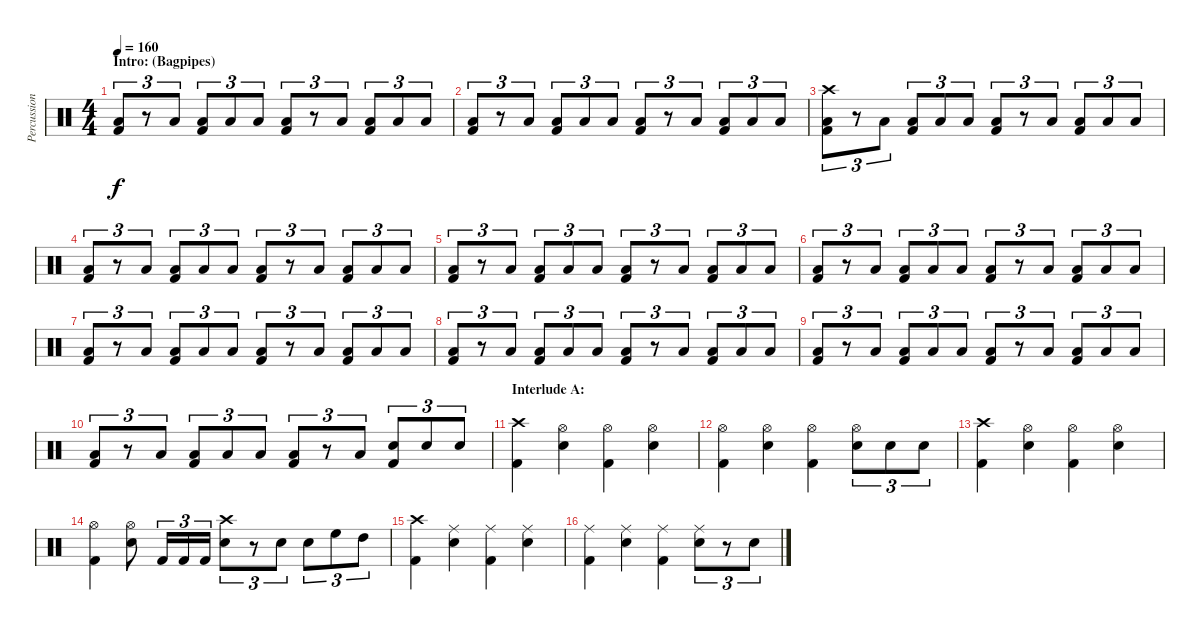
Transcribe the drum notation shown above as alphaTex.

\track ("Percussion" "Percussion") {instrument percussion}
\staff {score}
\articulation defaults
\ts (4 4)
\section ("" "Intro: (Bagpipes)")
\tempo 160
\tempo 145
\tempo 160
\clef neutral
\ks c
("Low Tom (hit)" "Kick (hit) 2").8{tu (3 2) dy f} r.8{tu (3 2)} "Low Tom (hit)".8{tu (3 2)} ("Low Tom (hit)" "Kick (hit) 2").8{tu (3 2)} "Low Tom (hit)".8{tu (3 2)} "Low Tom (hit)".8{tu (3 2)} ("Low Tom (hit)" "Kick (hit) 2").8{tu (3 2)} r.8{tu (3 2)} "Low Tom (hit)".8{tu (3 2)} ("Low Tom (hit)" "Kick (hit) 2").8{tu (3 2)} "Low Tom (hit)".8{tu (3 2)} "Low Tom (hit)".8{tu (3 2)} |
("Low Tom (hit)" "Kick (hit) 2").8{tu (3 2)} r.8{tu (3 2)} "Low Tom (hit)".8{tu (3 2)} ("Low Tom (hit)" "Kick (hit) 2").8{tu (3 2)} "Low Tom (hit)".8{tu (3 2)} "Low Tom (hit)".8{tu (3 2)} ("Low Tom (hit)" "Kick (hit) 2").8{tu (3 2)} r.8{tu (3 2)} "Low Tom (hit)".8{tu (3 2)} ("Low Tom (hit)" "Kick (hit) 2").8{tu (3 2)} "Low Tom (hit)".8{tu (3 2)} "Low Tom (hit)".8{tu (3 2)} |
("Crash high (hit)" "Low Tom (hit)" "Kick (hit) 2").8{tu (3 2)} r.8{tu (3 2)} "Low Tom (hit)".8{tu (3 2)} ("Low Tom (hit)" "Kick (hit) 2").8{tu (3 2)} "Low Tom (hit)".8{tu (3 2)} "Low Tom (hit)".8{tu (3 2)} ("Low Tom (hit)" "Kick (hit) 2").8{tu (3 2)} r.8{tu (3 2)} "Low Tom (hit)".8{tu (3 2)} ("Low Tom (hit)" "Kick (hit) 2").8{tu (3 2)} "Low Tom (hit)".8{tu (3 2)} "Low Tom (hit)".8{tu (3 2)} |
("Low Tom (hit)" "Kick (hit) 2").8{tu (3 2)} r.8{tu (3 2)} "Low Tom (hit)".8{tu (3 2)} ("Low Tom (hit)" "Kick (hit) 2").8{tu (3 2)} "Low Tom (hit)".8{tu (3 2)} "Low Tom (hit)".8{tu (3 2)} ("Low Tom (hit)" "Kick (hit) 2").8{tu (3 2)} r.8{tu (3 2)} "Low Tom (hit)".8{tu (3 2)} ("Low Tom (hit)" "Kick (hit) 2").8{tu (3 2)} "Low Tom (hit)".8{tu (3 2)} "Low Tom (hit)".8{tu (3 2)} |
("Low Tom (hit)" "Kick (hit) 2").8{tu (3 2)} r.8{tu (3 2)} "Low Tom (hit)".8{tu (3 2)} ("Low Tom (hit)" "Kick (hit) 2").8{tu (3 2)} "Low Tom (hit)".8{tu (3 2)} "Low Tom (hit)".8{tu (3 2)} ("Low Tom (hit)" "Kick (hit) 2").8{tu (3 2)} r.8{tu (3 2)} "Low Tom (hit)".8{tu (3 2)} ("Low Tom (hit)" "Kick (hit) 2").8{tu (3 2)} "Low Tom (hit)".8{tu (3 2)} "Low Tom (hit)".8{tu (3 2)} |
("Low Tom (hit)" "Kick (hit) 2").8{tu (3 2)} r.8{tu (3 2)} "Low Tom (hit)".8{tu (3 2)} ("Low Tom (hit)" "Kick (hit) 2").8{tu (3 2)} "Low Tom (hit)".8{tu (3 2)} "Low Tom (hit)".8{tu (3 2)} ("Low Tom (hit)" "Kick (hit) 2").8{tu (3 2)} r.8{tu (3 2)} "Low Tom (hit)".8{tu (3 2)} ("Low Tom (hit)" "Kick (hit) 2").8{tu (3 2)} "Low Tom (hit)".8{tu (3 2)} "Low Tom (hit)".8{tu (3 2)} |
("Low Tom (hit)" "Kick (hit) 2").8{tu (3 2)} r.8{tu (3 2)} "Low Tom (hit)".8{tu (3 2)} ("Low Tom (hit)" "Kick (hit) 2").8{tu (3 2)} "Low Tom (hit)".8{tu (3 2)} "Low Tom (hit)".8{tu (3 2)} ("Low Tom (hit)" "Kick (hit) 2").8{tu (3 2)} r.8{tu (3 2)} "Low Tom (hit)".8{tu (3 2)} ("Low Tom (hit)" "Kick (hit) 2").8{tu (3 2)} "Low Tom (hit)".8{tu (3 2)} "Low Tom (hit)".8{tu (3 2)} |
("Low Tom (hit)" "Kick (hit) 2").8{tu (3 2)} r.8{tu (3 2)} "Low Tom (hit)".8{tu (3 2)} ("Low Tom (hit)" "Kick (hit) 2").8{tu (3 2)} "Low Tom (hit)".8{tu (3 2)} "Low Tom (hit)".8{tu (3 2)} ("Low Tom (hit)" "Kick (hit) 2").8{tu (3 2)} r.8{tu (3 2)} "Low Tom (hit)".8{tu (3 2)} ("Low Tom (hit)" "Kick (hit) 2").8{tu (3 2)} "Low Tom (hit)".8{tu (3 2)} "Low Tom (hit)".8{tu (3 2)} |
("Low Tom (hit)" "Kick (hit) 2").8{tu (3 2)} r.8{tu (3 2)} "Low Tom (hit)".8{tu (3 2)} ("Low Tom (hit)" "Kick (hit) 2").8{tu (3 2)} "Low Tom (hit)".8{tu (3 2)} "Low Tom (hit)".8{tu (3 2)} ("Low Tom (hit)" "Kick (hit) 2").8{tu (3 2)} r.8{tu (3 2)} "Low Tom (hit)".8{tu (3 2)} ("Low Tom (hit)" "Kick (hit) 2").8{tu (3 2)} "Low Tom (hit)".8{tu (3 2)} "Low Tom (hit)".8{tu (3 2)} |
("Low Tom (hit)" "Kick (hit) 2").8{tu (3 2)} r.8{tu (3 2)} "Low Tom (hit)".8{tu (3 2)} ("Low Tom (hit)" "Kick (hit) 2").8{tu (3 2)} "Low Tom (hit)".8{tu (3 2)} "Low Tom (hit)".8{tu (3 2)} ("Low Tom (hit)" "Kick (hit) 2").8{tu (3 2)} r.8{tu (3 2)} "Low Tom (hit)".8{tu (3 2)} ("Electric Snare (hit)" "Kick (hit) 2").8{tu (3 2)} "Electric Snare (hit)".8{tu (3 2)} "Electric Snare (hit)".8{tu (3 2)} |
\section ("" "Interlude A:")
("Crash high (hit)" "Kick (hit) 2").4 ("Hi-Hat (open)" "Electric Snare (hit)").4 ("Hi-Hat (open)" "Kick (hit) 2").4 ("Hi-Hat (open)" "Electric Snare (hit)").4 |
("Hi-Hat (open)" "Kick (hit) 2").4 ("Hi-Hat (open)" "Electric Snare (hit)").4 ("Hi-Hat (open)" "Kick (hit) 2").4 ("Hi-Hat (open)" "Electric Snare (hit)").8{tu (3 2)} "Electric Snare (hit)".8{tu (3 2)} "Electric Snare (hit)".8{tu (3 2)} |
("Crash high (hit)" "Kick (hit) 2").4 ("Hi-Hat (open)" "Electric Snare (hit)").4 ("Hi-Hat (open)" "Kick (hit) 2").4 ("Hi-Hat (open)" "Electric Snare (hit)").4 |
("Hi-Hat (open)" "Kick (hit) 2").4 ("Hi-Hat (open)" "Electric Snare (hit)").8 "Kick (hit) 2".16{tu (3 2)} "Kick (hit) 2".16{tu (3 2)} "Kick (hit) 2".16{tu (3 2)} ("Crash high (hit)" "Electric Snare (hit)").8{tu (3 2)} r.8{tu (3 2)} "Electric Snare (hit)".8{tu (3 2)} "Electric Snare (hit)".8{tu (3 2)} "High Floor Tom (hit)".8{tu (3 2)} "High Tom (hit)".8{tu (3 2)} |
("Crash high (hit)" "Kick (hit) 2").4 ("Ride (middle)" "Electric Snare (hit)").4 ("Ride (middle)" "Kick (hit) 2").4 ("Ride (middle)" "Electric Snare (hit)").4 |
("Ride (middle)" "Kick (hit) 2").4 ("Ride (middle)" "Electric Snare (hit)").4 ("Ride (middle)" "Kick (hit) 2").4 ("Ride (middle)" "Electric Snare (hit)").8{tu (3 2)} r.8{tu (3 2)} "Electric Snare (hit)".8{tu (3 2)}
